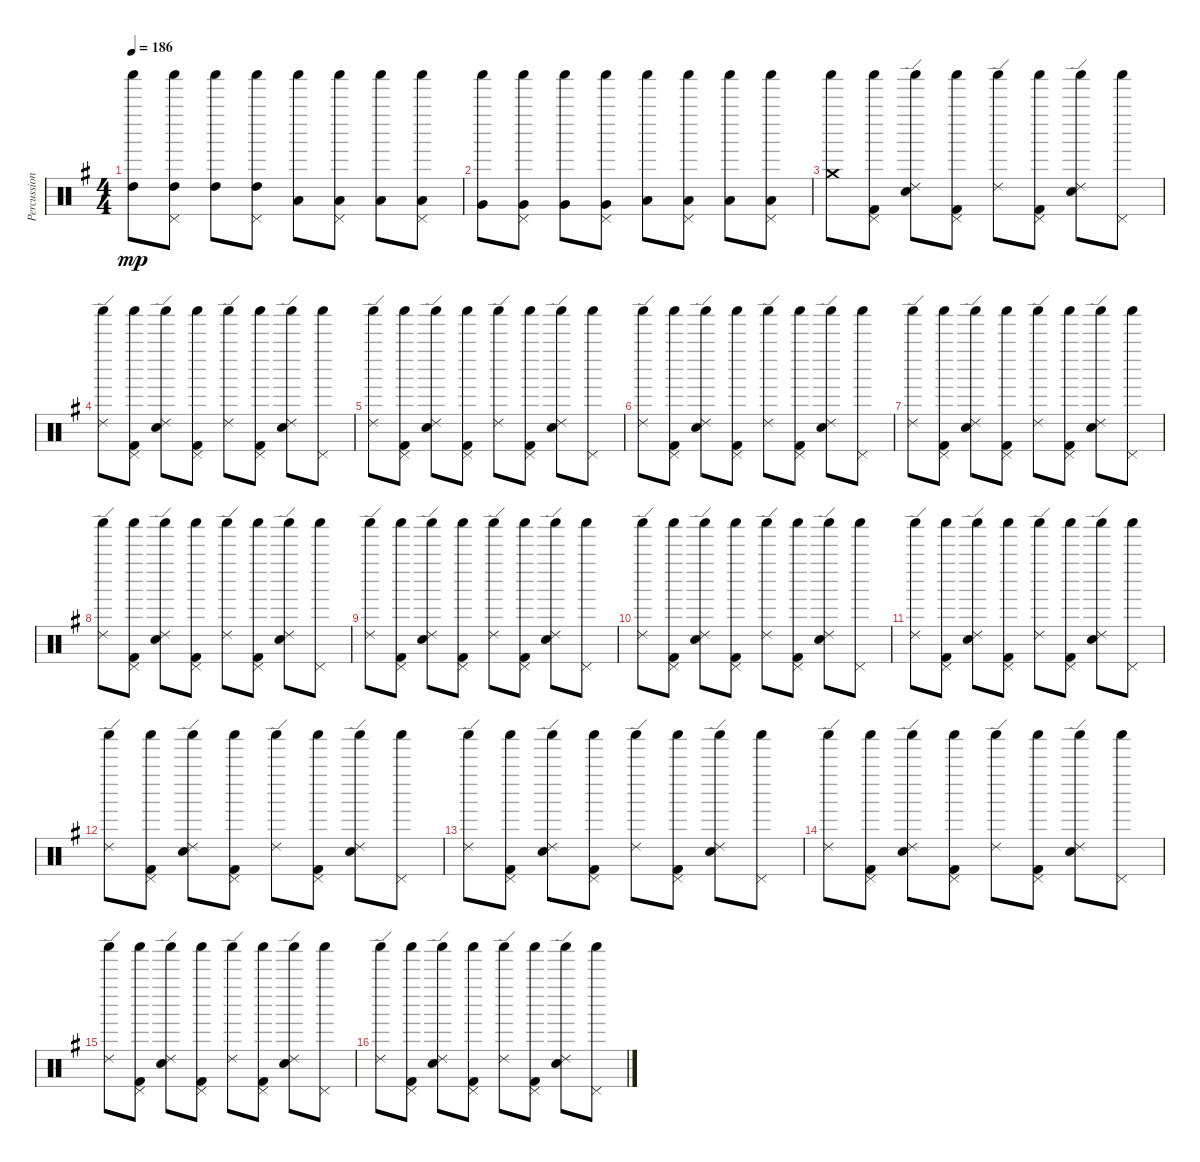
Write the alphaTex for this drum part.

\track ("Percussion" "Percussion") {instrument percussion}
\staff {score}
\articulation defaults
\ts (4 4)
\tempo 186
\clef neutral
\ks g
("Shaker (hit)" "High Tom (hit)").8{dy mp} ("Shaker (hit)" "Pedal Hi-Hat (hit)" "High Tom (hit)").8 ("Shaker (hit)" "High Tom (hit)").8 ("Shaker (hit)" "Pedal Hi-Hat (hit)" "High Tom (hit)").8 ("Shaker (hit)" "Low Tom (hit)").8 ("Shaker (hit)" "Pedal Hi-Hat (hit)" "Low Tom (hit)").8 ("Shaker (hit)" "Low Tom (hit)").8 ("Shaker (hit)" "Pedal Hi-Hat (hit)" "Low Tom (hit)").8 |
("Shaker (hit)" "Very Low Tom (hit)").8 ("Shaker (hit)" "Pedal Hi-Hat (hit)" "Very Low Tom (hit)").8 ("Shaker (hit)" "Very Low Tom (hit)").8 ("Shaker (hit)" "Pedal Hi-Hat (hit)" "Very Low Tom (hit)").8 ("Shaker (hit)" "Low Floor Tom (hit)").8 ("Shaker (hit)" "Pedal Hi-Hat (hit)" "Low Floor Tom (hit)").8 ("Shaker (hit)" "Low Floor Tom (hit)").8 ("Shaker (hit)" "Pedal Hi-Hat (hit)" "Low Floor Tom (hit)").8 |
("Shaker (hit)" "Crash medium (hit)").8 ("Shaker (hit)" "Pedal Hi-Hat (hit)" "Kick (hit) 2").8 ("Shaker (hit)" "Electric Snare (hit)" "Ride (edge) 2").8 ("Shaker (hit)" "Pedal Hi-Hat (hit)" "Kick (hit) 2").8 ("Shaker (hit)" "Ride (edge) 2").8 ("Shaker (hit)" "Pedal Hi-Hat (hit)" "Kick (hit) 2").8 ("Shaker (hit)" "Electric Snare (hit)" "Ride (edge) 2").8 ("Shaker (hit)" "Pedal Hi-Hat (hit)").8 |
("Shaker (hit)" "Ride (edge) 2").8 ("Shaker (hit)" "Pedal Hi-Hat (hit)" "Kick (hit) 2").8 ("Shaker (hit)" "Electric Snare (hit)" "Ride (edge) 2").8 ("Shaker (hit)" "Pedal Hi-Hat (hit)" "Kick (hit) 2").8 ("Shaker (hit)" "Ride (edge) 2").8 ("Shaker (hit)" "Pedal Hi-Hat (hit)" "Kick (hit) 2").8 ("Shaker (hit)" "Electric Snare (hit)" "Ride (edge) 2").8 ("Shaker (hit)" "Pedal Hi-Hat (hit)").8 |
("Shaker (hit)" "Ride (edge) 2").8 ("Shaker (hit)" "Pedal Hi-Hat (hit)" "Kick (hit) 2").8 ("Shaker (hit)" "Electric Snare (hit)" "Ride (edge) 2").8 ("Shaker (hit)" "Pedal Hi-Hat (hit)" "Kick (hit) 2").8 ("Shaker (hit)" "Ride (edge) 2").8 ("Shaker (hit)" "Pedal Hi-Hat (hit)" "Kick (hit) 2").8 ("Shaker (hit)" "Electric Snare (hit)" "Ride (edge) 2").8 ("Shaker (hit)" "Pedal Hi-Hat (hit)").8 |
("Shaker (hit)" "Ride (edge) 2").8 ("Shaker (hit)" "Pedal Hi-Hat (hit)" "Kick (hit) 2").8 ("Shaker (hit)" "Electric Snare (hit)" "Ride (edge) 2").8 ("Shaker (hit)" "Pedal Hi-Hat (hit)" "Kick (hit) 2").8 ("Shaker (hit)" "Ride (edge) 2").8 ("Shaker (hit)" "Pedal Hi-Hat (hit)" "Kick (hit) 2").8 ("Shaker (hit)" "Electric Snare (hit)" "Ride (edge) 2").8 ("Shaker (hit)" "Pedal Hi-Hat (hit)").8 |
("Shaker (hit)" "Ride (edge) 2").8 ("Shaker (hit)" "Pedal Hi-Hat (hit)" "Kick (hit) 2").8 ("Shaker (hit)" "Electric Snare (hit)" "Ride (edge) 2").8 ("Shaker (hit)" "Pedal Hi-Hat (hit)" "Kick (hit) 2").8 ("Shaker (hit)" "Ride (edge) 2").8 ("Shaker (hit)" "Pedal Hi-Hat (hit)" "Kick (hit) 2").8 ("Shaker (hit)" "Electric Snare (hit)" "Ride (edge) 2").8 ("Shaker (hit)" "Pedal Hi-Hat (hit)").8 |
("Shaker (hit)" "Ride (edge) 2").8 ("Shaker (hit)" "Pedal Hi-Hat (hit)" "Kick (hit) 2").8 ("Shaker (hit)" "Electric Snare (hit)" "Ride (edge) 2").8 ("Shaker (hit)" "Pedal Hi-Hat (hit)" "Kick (hit) 2").8 ("Shaker (hit)" "Ride (edge) 2").8 ("Shaker (hit)" "Pedal Hi-Hat (hit)" "Kick (hit) 2").8 ("Shaker (hit)" "Electric Snare (hit)" "Ride (edge) 2").8 ("Shaker (hit)" "Pedal Hi-Hat (hit)").8 |
("Shaker (hit)" "Ride (edge) 2").8 ("Shaker (hit)" "Pedal Hi-Hat (hit)" "Kick (hit) 2").8 ("Shaker (hit)" "Electric Snare (hit)" "Ride (edge) 2").8 ("Shaker (hit)" "Pedal Hi-Hat (hit)" "Kick (hit) 2").8 ("Shaker (hit)" "Ride (edge) 2").8 ("Shaker (hit)" "Pedal Hi-Hat (hit)" "Kick (hit) 2").8 ("Shaker (hit)" "Electric Snare (hit)" "Ride (edge) 2").8 ("Shaker (hit)" "Pedal Hi-Hat (hit)").8 |
("Shaker (hit)" "Ride (edge) 2").8 ("Shaker (hit)" "Pedal Hi-Hat (hit)" "Kick (hit) 2").8 ("Shaker (hit)" "Electric Snare (hit)" "Ride (edge) 2").8 ("Shaker (hit)" "Pedal Hi-Hat (hit)" "Kick (hit) 2").8 ("Shaker (hit)" "Ride (edge) 2").8 ("Shaker (hit)" "Pedal Hi-Hat (hit)" "Kick (hit) 2").8 ("Shaker (hit)" "Electric Snare (hit)" "Ride (edge) 2").8 ("Shaker (hit)" "Pedal Hi-Hat (hit)").8 |
("Shaker (hit)" "Ride (edge) 2").8 ("Shaker (hit)" "Pedal Hi-Hat (hit)" "Kick (hit) 2").8 ("Shaker (hit)" "Electric Snare (hit)" "Ride (edge) 2").8 ("Shaker (hit)" "Pedal Hi-Hat (hit)" "Kick (hit) 2").8 ("Shaker (hit)" "Ride (edge) 2").8 ("Shaker (hit)" "Pedal Hi-Hat (hit)" "Kick (hit) 2").8 ("Shaker (hit)" "Electric Snare (hit)" "Ride (edge) 2").8 ("Shaker (hit)" "Pedal Hi-Hat (hit)").8 |
("Shaker (hit)" "Ride (edge) 2").8 ("Shaker (hit)" "Pedal Hi-Hat (hit)" "Kick (hit) 2").8 ("Shaker (hit)" "Electric Snare (hit)" "Ride (edge) 2").8 ("Shaker (hit)" "Pedal Hi-Hat (hit)" "Kick (hit) 2").8 ("Shaker (hit)" "Ride (edge) 2").8 ("Shaker (hit)" "Pedal Hi-Hat (hit)" "Kick (hit) 2").8 ("Shaker (hit)" "Electric Snare (hit)" "Ride (edge) 2").8 ("Shaker (hit)" "Pedal Hi-Hat (hit)").8 |
("Shaker (hit)" "Ride (edge) 2").8 ("Shaker (hit)" "Pedal Hi-Hat (hit)" "Kick (hit) 2").8 ("Shaker (hit)" "Electric Snare (hit)" "Ride (edge) 2").8 ("Shaker (hit)" "Pedal Hi-Hat (hit)" "Kick (hit) 2").8 ("Shaker (hit)" "Ride (edge) 2").8 ("Shaker (hit)" "Pedal Hi-Hat (hit)" "Kick (hit) 2").8 ("Shaker (hit)" "Electric Snare (hit)" "Ride (edge) 2").8 ("Shaker (hit)" "Pedal Hi-Hat (hit)").8 |
("Shaker (hit)" "Ride (edge) 2").8 ("Shaker (hit)" "Pedal Hi-Hat (hit)" "Kick (hit) 2").8 ("Shaker (hit)" "Electric Snare (hit)" "Ride (edge) 2").8 ("Shaker (hit)" "Pedal Hi-Hat (hit)" "Kick (hit) 2").8 ("Shaker (hit)" "Ride (edge) 2").8 ("Shaker (hit)" "Pedal Hi-Hat (hit)" "Kick (hit) 2").8 ("Shaker (hit)" "Electric Snare (hit)" "Ride (edge) 2").8 ("Shaker (hit)" "Pedal Hi-Hat (hit)").8 |
("Shaker (hit)" "Ride (edge) 2").8 ("Shaker (hit)" "Pedal Hi-Hat (hit)" "Kick (hit) 2").8 ("Shaker (hit)" "Electric Snare (hit)" "Ride (edge) 2").8 ("Shaker (hit)" "Pedal Hi-Hat (hit)" "Kick (hit) 2").8 ("Shaker (hit)" "Ride (edge) 2").8 ("Shaker (hit)" "Pedal Hi-Hat (hit)" "Kick (hit) 2").8 ("Shaker (hit)" "Electric Snare (hit)" "Ride (edge) 2").8 ("Shaker (hit)" "Pedal Hi-Hat (hit)").8 |
("Shaker (hit)" "Ride (edge) 2").8 ("Shaker (hit)" "Pedal Hi-Hat (hit)" "Kick (hit) 2").8 ("Shaker (hit)" "Electric Snare (hit)" "Ride (edge) 2").8 ("Shaker (hit)" "Pedal Hi-Hat (hit)" "Kick (hit) 2").8 ("Shaker (hit)" "Ride (edge) 2").8 ("Shaker (hit)" "Pedal Hi-Hat (hit)" "Kick (hit) 2").8 ("Shaker (hit)" "Electric Snare (hit)" "Ride (edge) 2").8 ("Shaker (hit)" "Pedal Hi-Hat (hit)").8
